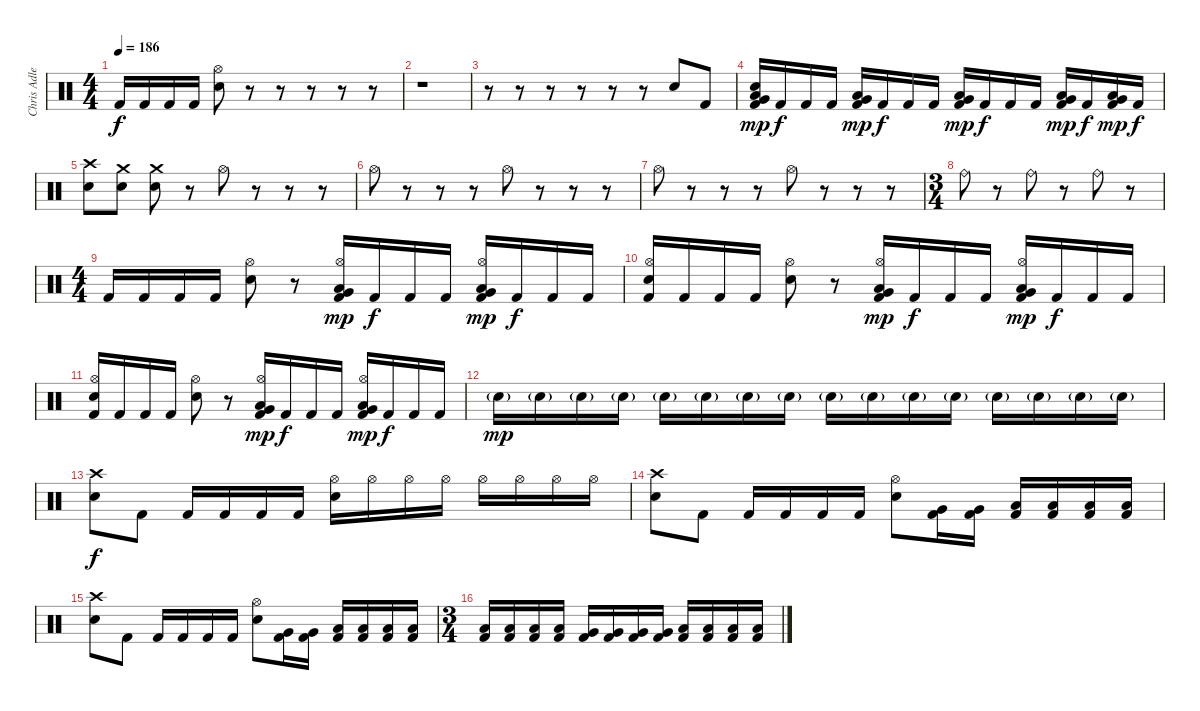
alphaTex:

\track ("Chris Adler" "Chris Adle") {instrument percussion}
\staff {score}
\articulation defaults
\ts (4 4)
\tempo 186
\clef neutral
\ks c "Kick (hit) 2".16{dy f} "Kick (hit) 2".16 "Kick (hit) 2".16 "Kick (hit) 2".16
("Hi-Hat (open)" "Electric Snare (hit)").8 r.8 r.8 r.8 r.8 r.8 |
r.1 |
r.8 r.8 r.8 r.8 r.8 r.8 "Electric Snare (hit)".8 "Kick (hit) 2".8 |
("Electric Snare (hit)" "Very Low Tom (hit)" "Low Floor Tom (hit)" "Kick (hit) 2").16{dy mp} "Kick (hit) 2".16{dy f} "Kick (hit) 2".16 "Kick (hit) 2".16 ("Very Low Tom (hit)" "Low Floor Tom (hit)" "Kick (hit) 2").16{dy mp} "Kick (hit) 2".16{dy f} "Kick (hit) 2".16 "Kick (hit) 2".16 ("Very Low Tom (hit)" "Low Floor Tom (hit)" "Kick (hit) 2").16{dy mp} "Kick (hit) 2".16{dy f} "Kick (hit) 2".16 "Kick (hit) 2".16 ("Very Low Tom (hit)" "Low Floor Tom (hit)" "Kick (hit) 2").16{dy mp} "Kick (hit) 2".16{dy f} ("Very Low Tom (hit)" "Low Floor Tom (hit)" "Kick (hit) 2").16{dy mp} "Kick (hit) 2".16{dy f} |
("Crash high (hit)" "Electric Snare (hit)").8 ("Crash medium (hit)" "Electric Snare (hit)").8 ("Crash medium (hit)" "Electric Snare (hit)").8 r.8 "Hi-Hat (open)".8 r.8 r.8 r.8 |
"Hi-Hat (open)".8 r.8 r.8 r.8 "Hi-Hat (open)".8 r.8 r.8 r.8 |
"Hi-Hat (open)".8 r.8 r.8 r.8 "Hi-Hat (open)".8 r.8 r.8 r.8 |
\ts (3 4)
"Ride (bell)".8 r.8 "Ride (bell)".8 r.8 "Ride (bell)".8 r.8 |
\ts (4 4)
"Kick (hit) 2".16 "Kick (hit) 2".16 "Kick (hit) 2".16 "Kick (hit) 2".16 ("Hi-Hat (open)" "Electric Snare (hit)").8 r.8 ("Hi-Hat (open)" "Very Low Tom (hit)" "Low Floor Tom (hit)" "Kick (hit) 2").16{dy mp} "Kick (hit) 2".16{dy f} "Kick (hit) 2".16 "Kick (hit) 2".16 ("Hi-Hat (open)" "Very Low Tom (hit)" "Low Floor Tom (hit)" "Kick (hit) 2").16{dy mp} "Kick (hit) 2".16{dy f} "Kick (hit) 2".16 "Kick (hit) 2".16 |
("Hi-Hat (open)" "Electric Snare (hit)" "Kick (hit) 2").16 "Kick (hit) 2".16 "Kick (hit) 2".16 "Kick (hit) 2".16 ("Hi-Hat (open)" "Electric Snare (hit)").8 r.8 ("Hi-Hat (open)" "Very Low Tom (hit)" "Low Floor Tom (hit)" "Kick (hit) 2").16{dy mp} "Kick (hit) 2".16{dy f} "Kick (hit) 2".16 "Kick (hit) 2".16 ("Hi-Hat (open)" "Very Low Tom (hit)" "Low Floor Tom (hit)" "Kick (hit) 2").16{dy mp} "Kick (hit) 2".16{dy f} "Kick (hit) 2".16 "Kick (hit) 2".16 |
("Hi-Hat (open)" "Electric Snare (hit)" "Kick (hit) 2").16 "Kick (hit) 2".16 "Kick (hit) 2".16 "Kick (hit) 2".16 ("Hi-Hat (open)" "Electric Snare (hit)").8 r.8 ("Hi-Hat (open)" "Very Low Tom (hit)" "Low Floor Tom (hit)" "Kick (hit) 2").16{dy mp} "Kick (hit) 2".16{dy f} "Kick (hit) 2".16 "Kick (hit) 2".16 ("Hi-Hat (open)" "Very Low Tom (hit)" "Low Floor Tom (hit)" "Kick (hit) 2").16{dy mp} "Kick (hit) 2".16{dy f} "Kick (hit) 2".16 "Kick (hit) 2".16 |
"Electric Snare (hit)"{g}.16{dy mp} "Electric Snare (hit)"{g}.16 "Electric Snare (hit)"{g}.16 "Electric Snare (hit)"{g}.16 "Electric Snare (hit)"{g}.16 "Electric Snare (hit)"{g}.16 "Electric Snare (hit)"{g}.16 "Electric Snare (hit)"{g}.16 "Electric Snare (hit)"{g}.16 "Electric Snare (hit)"{g}.16 "Electric Snare (hit)"{g}.16 "Electric Snare (hit)"{g}.16 "Electric Snare (hit)"{g}.16 "Electric Snare (hit)"{g}.16 "Electric Snare (hit)"{g}.16 "Electric Snare (hit)"{g}.16 |
("Crash high (hit)" "Electric Snare (hit)").8{dy f} "Kick (hit) 2".8 "Kick (hit) 2".16 "Kick (hit) 2".16 "Kick (hit) 2".16 "Kick (hit) 2".16 ("Hi-Hat (open)" "Electric Snare (hit)").16 "Hi-Hat (open)".16 "Hi-Hat (open)".16 "Hi-Hat (open)".16 "Hi-Hat (open)".16 "Hi-Hat (open)".16 "Hi-Hat (open)".16 "Hi-Hat (open)".16 |
("Crash high (hit)" "Electric Snare (hit)").8 "Kick (hit) 2".8 "Kick (hit) 2".16 "Kick (hit) 2".16 "Kick (hit) 2".16 "Kick (hit) 2".16 ("Hi-Hat (open)" "Electric Snare (hit)").8 ("Very Low Tom (hit)" "Kick (hit) 2").16 ("Very Low Tom (hit)" "Kick (hit) 2").16 ("Low Floor Tom (hit)" "Kick (hit) 2").16 ("Low Floor Tom (hit)" "Kick (hit) 2").16 ("Low Floor Tom (hit)" "Kick (hit) 2").16 ("Low Floor Tom (hit)" "Kick (hit) 2").16 |
("Crash high (hit)" "Electric Snare (hit)").8 "Kick (hit) 2".8 "Kick (hit) 2".16 "Kick (hit) 2".16 "Kick (hit) 2".16 "Kick (hit) 2".16 ("Hi-Hat (open)" "Electric Snare (hit)").8 ("Very Low Tom (hit)" "Kick (hit) 2").16 ("Very Low Tom (hit)" "Kick (hit) 2").16 ("Low Floor Tom (hit)" "Kick (hit) 2").16 ("Low Floor Tom (hit)" "Kick (hit) 2").16 ("Low Floor Tom (hit)" "Kick (hit) 2").16 ("Low Floor Tom (hit)" "Kick (hit) 2").16 |
\ts (3 4)
("Low Tom (hit)" "Kick (hit) 2").16 ("Low Tom (hit)" "Kick (hit) 2").16 ("Low Tom (hit)" "Kick (hit) 2").16 ("Low Tom (hit)" "Kick (hit) 2").16 ("Very Low Tom (hit)" "Kick (hit) 2").16 ("Very Low Tom (hit)" "Kick (hit) 2").16 ("Very Low Tom (hit)" "Kick (hit) 2").16 ("Very Low Tom (hit)" "Kick (hit) 2").16 ("Low Floor Tom (hit)" "Kick (hit) 2").16 ("Low Floor Tom (hit)" "Kick (hit) 2").16 ("Low Floor Tom (hit)" "Kick (hit) 2").16 ("Low Floor Tom (hit)" "Kick (hit) 2").16
